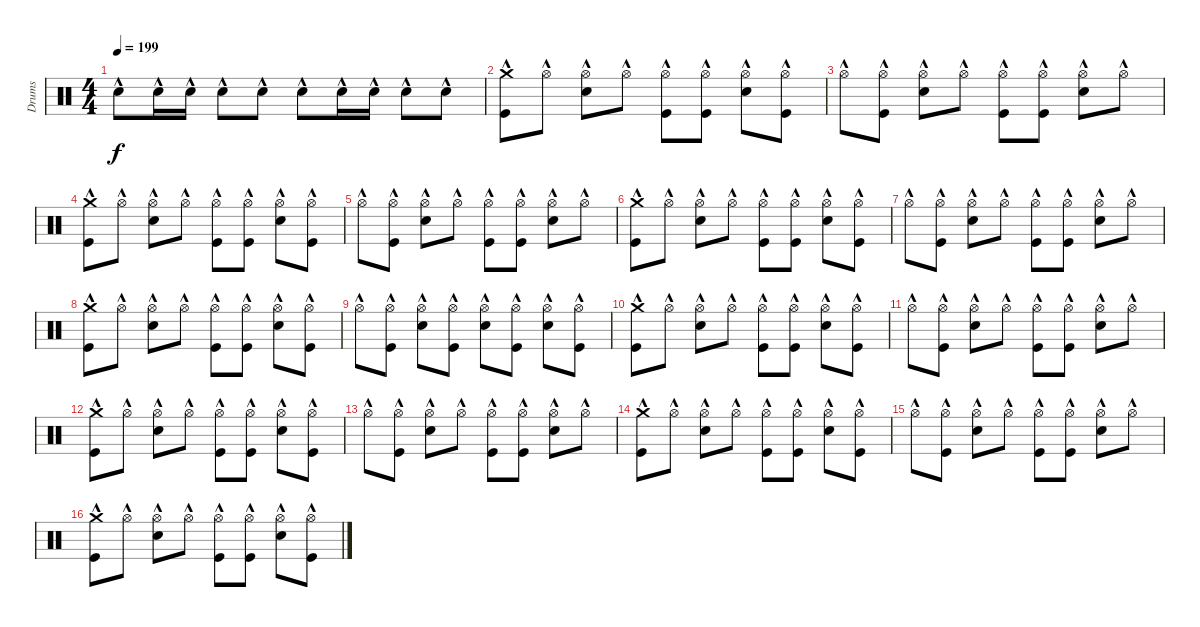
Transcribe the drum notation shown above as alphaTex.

\track ("Drumkit" "Drums") {instrument percussion}
\staff {score}
\articulation defaults
\ts (4 4)
\tempo 199
\clef neutral
\ks c "Snare (hit) 2"{hac}.8{dy f} "Snare (hit) 2"{hac}.16 "Snare (hit) 2"{hac}.16 "Snare (hit) 2"{hac}.8 "Snare (hit) 2"{hac}.8 "Snare (hit) 2"{hac}.8 "Snare (hit) 2"{hac}.16 "Snare (hit) 2"{hac}.16 "Snare (hit) 2"{hac}.8 "Snare (hit) 2"{hac}.8
|
("Kick (hit)"{hac} "Crash medium (hit)"{hac}).8 "Hi-Hat (open)"{hac}.8 ("Hi-Hat (open)"{hac} "Snare (hit) 2"{hac}).8 "Hi-Hat (open)"{hac}.8 ("Hi-Hat (open)"{hac} "Kick (hit)"{hac}).8 ("Hi-Hat (open)"{hac} "Kick (hit)"{hac}).8 ("Hi-Hat (open)"{hac} "Snare (hit) 2"{hac}).8 ("Hi-Hat (open)"{hac} "Kick (hit)"{hac}).8 |
"Hi-Hat (open)"{hac}.8 ("Kick (hit)"{hac} "Hi-Hat (open)"{hac}).8 ("Hi-Hat (open)"{hac} "Snare (hit) 2"{hac}).8 "Hi-Hat (open)"{hac}.8 ("Hi-Hat (open)"{hac} "Kick (hit)"{hac}).8 ("Kick (hit)"{hac} "Hi-Hat (open)"{hac}).8 ("Hi-Hat (open)"{hac} "Snare (hit) 2"{hac}).8 "Hi-Hat (open)"{hac}.8 |
("Kick (hit)"{hac} "Crash medium (hit)"{hac}).8 "Hi-Hat (open)"{hac}.8 ("Hi-Hat (open)"{hac} "Snare (hit) 2"{hac}).8 "Hi-Hat (open)"{hac}.8 ("Hi-Hat (open)"{hac} "Kick (hit)"{hac}).8 ("Hi-Hat (open)"{hac} "Kick (hit)"{hac}).8 ("Hi-Hat (open)"{hac} "Snare (hit) 2"{hac}).8 ("Hi-Hat (open)"{hac} "Kick (hit)"{hac}).8 |
"Hi-Hat (open)"{hac}.8 ("Kick (hit)"{hac} "Hi-Hat (open)"{hac}).8 ("Hi-Hat (open)"{hac} "Snare (hit) 2"{hac}).8 "Hi-Hat (open)"{hac}.8 ("Hi-Hat (open)"{hac} "Kick (hit)"{hac}).8 ("Kick (hit)"{hac} "Hi-Hat (open)"{hac}).8 ("Hi-Hat (open)"{hac} "Snare (hit) 2"{hac}).8 "Hi-Hat (open)"{hac}.8 |
("Kick (hit)"{hac} "Crash medium (hit)"{hac}).8 "Hi-Hat (open)"{hac}.8 ("Hi-Hat (open)"{hac} "Snare (hit) 2"{hac}).8 "Hi-Hat (open)"{hac}.8 ("Hi-Hat (open)"{hac} "Kick (hit)"{hac}).8 ("Hi-Hat (open)"{hac} "Kick (hit)"{hac}).8 ("Hi-Hat (open)"{hac} "Snare (hit) 2"{hac}).8 ("Hi-Hat (open)"{hac} "Kick (hit)"{hac}).8 |
"Hi-Hat (open)"{hac}.8 ("Kick (hit)"{hac} "Hi-Hat (open)"{hac}).8 ("Hi-Hat (open)"{hac} "Snare (hit) 2"{hac}).8 "Hi-Hat (open)"{hac}.8 ("Hi-Hat (open)"{hac} "Kick (hit)"{hac}).8 ("Kick (hit)"{hac} "Hi-Hat (open)"{hac}).8 ("Hi-Hat (open)"{hac} "Snare (hit) 2"{hac}).8 "Hi-Hat (open)"{hac}.8 |
("Kick (hit)"{hac} "Crash medium (hit)"{hac}).8 "Hi-Hat (open)"{hac}.8 ("Hi-Hat (open)"{hac} "Snare (hit) 2"{hac}).8 "Hi-Hat (open)"{hac}.8 ("Hi-Hat (open)"{hac} "Kick (hit)"{hac}).8 ("Hi-Hat (open)"{hac} "Kick (hit)"{hac}).8 ("Hi-Hat (open)"{hac} "Snare (hit) 2"{hac}).8 ("Hi-Hat (open)"{hac} "Kick (hit)"{hac}).8 |
"Hi-Hat (open)"{hac}.8 ("Hi-Hat (open)"{hac} "Kick (hit)"{hac}).8 ("Hi-Hat (open)"{hac} "Snare (hit) 2"{hac}).8 ("Hi-Hat (open)"{hac} "Kick (hit)"{hac}).8 ("Hi-Hat (open)"{hac} "Snare (hit) 2"{hac}).8 ("Hi-Hat (open)"{hac} "Kick (hit)"{hac}).8 ("Hi-Hat (open)"{hac} "Snare (hit) 2"{hac}).8 ("Hi-Hat (open)"{hac} "Kick (hit)"{hac}).8 |
("Kick (hit)"{hac} "Crash medium (hit)"{hac}).8 "Hi-Hat (open)"{hac}.8 ("Hi-Hat (open)"{hac} "Snare (hit) 2"{hac}).8 "Hi-Hat (open)"{hac}.8 ("Hi-Hat (open)"{hac} "Kick (hit)"{hac}).8 ("Hi-Hat (open)"{hac} "Kick (hit)"{hac}).8 ("Hi-Hat (open)"{hac} "Snare (hit) 2"{hac}).8 ("Hi-Hat (open)"{hac} "Kick (hit)"{hac}).8 |
"Hi-Hat (open)"{hac}.8 ("Kick (hit)"{hac} "Hi-Hat (open)"{hac}).8 ("Hi-Hat (open)"{hac} "Snare (hit) 2"{hac}).8 "Hi-Hat (open)"{hac}.8 ("Hi-Hat (open)"{hac} "Kick (hit)"{hac}).8 ("Kick (hit)"{hac} "Hi-Hat (open)"{hac}).8 ("Hi-Hat (open)"{hac} "Snare (hit) 2"{hac}).8 "Hi-Hat (open)"{hac}.8 |
("Kick (hit)"{hac} "Crash medium (hit)"{hac}).8 "Hi-Hat (open)"{hac}.8 ("Hi-Hat (open)"{hac} "Snare (hit) 2"{hac}).8 "Hi-Hat (open)"{hac}.8 ("Hi-Hat (open)"{hac} "Kick (hit)"{hac}).8 ("Hi-Hat (open)"{hac} "Kick (hit)"{hac}).8 ("Hi-Hat (open)"{hac} "Snare (hit) 2"{hac}).8 ("Hi-Hat (open)"{hac} "Kick (hit)"{hac}).8 |
"Hi-Hat (open)"{hac}.8 ("Kick (hit)"{hac} "Hi-Hat (open)"{hac}).8 ("Hi-Hat (open)"{hac} "Snare (hit) 2"{hac}).8 "Hi-Hat (open)"{hac}.8 ("Hi-Hat (open)"{hac} "Kick (hit)"{hac}).8 ("Kick (hit)"{hac} "Hi-Hat (open)"{hac}).8 ("Hi-Hat (open)"{hac} "Snare (hit) 2"{hac}).8 "Hi-Hat (open)"{hac}.8 |
("Kick (hit)"{hac} "Crash medium (hit)"{hac}).8 "Hi-Hat (open)"{hac}.8 ("Hi-Hat (open)"{hac} "Snare (hit) 2"{hac}).8 "Hi-Hat (open)"{hac}.8 ("Hi-Hat (open)"{hac} "Kick (hit)"{hac}).8 ("Hi-Hat (open)"{hac} "Kick (hit)"{hac}).8 ("Hi-Hat (open)"{hac} "Snare (hit) 2"{hac}).8 ("Hi-Hat (open)"{hac} "Kick (hit)"{hac}).8 |
"Hi-Hat (open)"{hac}.8 ("Kick (hit)"{hac} "Hi-Hat (open)"{hac}).8 ("Hi-Hat (open)"{hac} "Snare (hit) 2"{hac}).8 "Hi-Hat (open)"{hac}.8 ("Hi-Hat (open)"{hac} "Kick (hit)"{hac}).8 ("Kick (hit)"{hac} "Hi-Hat (open)"{hac}).8 ("Hi-Hat (open)"{hac} "Snare (hit) 2"{hac}).8 "Hi-Hat (open)"{hac}.8 |
("Kick (hit)"{hac} "Crash medium (hit)"{hac}).8 "Hi-Hat (open)"{hac}.8 ("Hi-Hat (open)"{hac} "Snare (hit) 2"{hac}).8 "Hi-Hat (open)"{hac}.8 ("Hi-Hat (open)"{hac} "Kick (hit)"{hac}).8 ("Hi-Hat (open)"{hac} "Kick (hit)"{hac}).8 ("Hi-Hat (open)"{hac} "Snare (hit) 2"{hac}).8 ("Hi-Hat (open)"{hac} "Kick (hit)"{hac}).8
